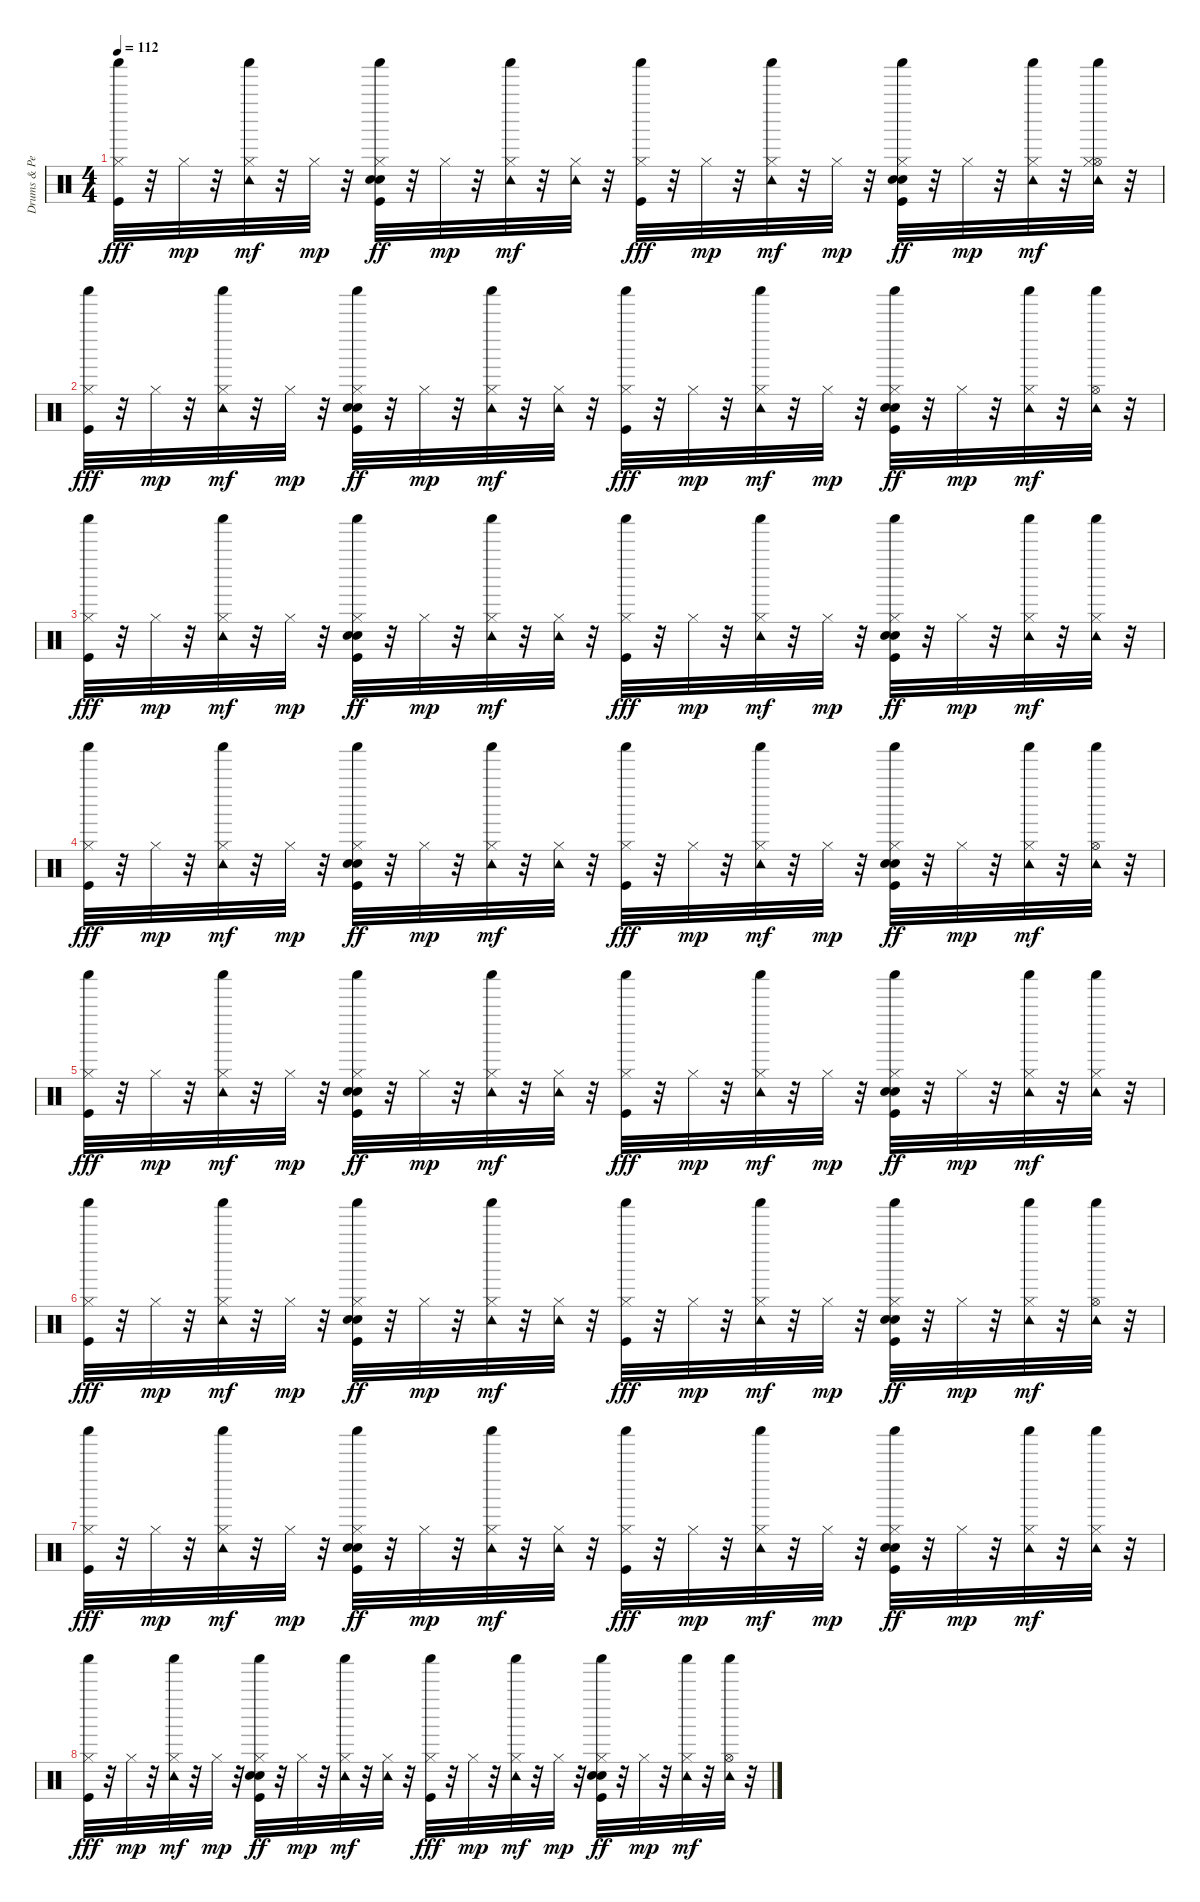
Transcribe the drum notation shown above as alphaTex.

\track ("Drums & Percussion" "Drums & Pe") {instrument percussion}
\staff {score}
\articulation defaults
\ts (4 4)
\tempo 112
\clef neutral
\ks c
("Shaker (hit)" "Hi-Hat (closed)" "Kick (hit)").32{dy fff} r.32 "Hi-Hat (closed)".32{dy mp} r.32 ("Shaker (hit)" "Hi-Hat (closed)" "Tambourine (hit)").32{dy mf} r.32 "Hi-Hat (closed)".32{dy mp} r.32 ("Shaker (hit)" "Snare (hit) 2" "Hi-Hat (closed)" "Hand Clap (hit)" "Kick (hit)").32{dy ff} r.32 "Hi-Hat (closed)".32{dy mp} r.32 ("Shaker (hit)" "Hi-Hat (closed)" "Tambourine (hit)").32{dy mf} r.32 ("Hi-Hat (closed)" "Tambourine (hit)").32 r.32 ("Shaker (hit)" "Hi-Hat (closed)" "Kick (hit)").32{dy fff} r.32 "Hi-Hat (closed)".32{dy mp} r.32 ("Shaker (hit)" "Hi-Hat (closed)" "Tambourine (hit)").32{dy mf} r.32 "Hi-Hat (closed)".32{dy mp} r.32 ("Shaker (hit)" "Snare (hit) 2" "Hi-Hat (closed)" "Hand Clap (hit)" "Kick (hit)").32{dy ff} r.32 "Hi-Hat (closed)".32{dy mp} r.32 ("Shaker (hit)" "Hi-Hat (closed)" "Tambourine (hit)").32{dy mf} r.32 ("Hi-Hat (open)" "Shaker (hit)" "Hi-Hat (closed)" "Tambourine (hit)").32 r.32 |
("Shaker (hit)" "Hi-Hat (closed)" "Kick (hit)").32{dy fff} r.32 "Hi-Hat (closed)".32{dy mp} r.32 ("Shaker (hit)" "Hi-Hat (closed)" "Tambourine (hit)").32{dy mf} r.32 "Hi-Hat (closed)".32{dy mp} r.32 ("Shaker (hit)" "Snare (hit) 2" "Hi-Hat (closed)" "Hand Clap (hit)" "Kick (hit)").32{dy ff} r.32 "Hi-Hat (closed)".32{dy mp} r.32 ("Shaker (hit)" "Hi-Hat (closed)" "Tambourine (hit)").32{dy mf} r.32 ("Hi-Hat (closed)" "Tambourine (hit)").32 r.32 ("Shaker (hit)" "Hi-Hat (closed)" "Kick (hit)").32{dy fff} r.32 "Hi-Hat (closed)".32{dy mp} r.32 ("Shaker (hit)" "Hi-Hat (closed)" "Tambourine (hit)").32{dy mf} r.32 "Hi-Hat (closed)".32{dy mp} r.32 ("Shaker (hit)" "Snare (hit) 2" "Hi-Hat (closed)" "Hand Clap (hit)" "Kick (hit)").32{dy ff} r.32 "Hi-Hat (closed)".32{dy mp} r.32 ("Shaker (hit)" "Hi-Hat (closed)" "Tambourine (hit)").32{dy mf} r.32 ("Hi-Hat (open)" "Shaker (hit)" "Tambourine (hit)").32 r.32 |
("Shaker (hit)" "Hi-Hat (closed)" "Kick (hit)").32{dy fff} r.32 "Hi-Hat (closed)".32{dy mp} r.32 ("Shaker (hit)" "Hi-Hat (closed)" "Tambourine (hit)").32{dy mf} r.32 "Hi-Hat (closed)".32{dy mp} r.32 ("Shaker (hit)" "Snare (hit) 2" "Hi-Hat (closed)" "Hand Clap (hit)" "Kick (hit)").32{dy ff} r.32 "Hi-Hat (closed)".32{dy mp} r.32 ("Shaker (hit)" "Hi-Hat (closed)" "Tambourine (hit)").32{dy mf} r.32 ("Hi-Hat (closed)" "Tambourine (hit)").32 r.32 ("Shaker (hit)" "Hi-Hat (closed)" "Kick (hit)").32{dy fff} r.32 "Hi-Hat (closed)".32{dy mp} r.32 ("Shaker (hit)" "Hi-Hat (closed)" "Tambourine (hit)").32{dy mf} r.32 "Hi-Hat (closed)".32{dy mp} r.32 ("Shaker (hit)" "Snare (hit) 2" "Hi-Hat (closed)" "Hand Clap (hit)" "Kick (hit)").32{dy ff} r.32 "Hi-Hat (closed)".32{dy mp} r.32 ("Shaker (hit)" "Hi-Hat (closed)" "Tambourine (hit)").32{dy mf} r.32 ("Shaker (hit)" "Hi-Hat (closed)" "Tambourine (hit)").32 r.32 |
("Shaker (hit)" "Hi-Hat (closed)" "Kick (hit)").32{dy fff} r.32 "Hi-Hat (closed)".32{dy mp} r.32 ("Shaker (hit)" "Hi-Hat (closed)" "Tambourine (hit)").32{dy mf} r.32 "Hi-Hat (closed)".32{dy mp} r.32 ("Shaker (hit)" "Snare (hit) 2" "Hi-Hat (closed)" "Hand Clap (hit)" "Kick (hit)").32{dy ff} r.32 "Hi-Hat (closed)".32{dy mp} r.32 ("Shaker (hit)" "Hi-Hat (closed)" "Tambourine (hit)").32{dy mf} r.32 ("Hi-Hat (closed)" "Tambourine (hit)").32 r.32 ("Shaker (hit)" "Hi-Hat (closed)" "Kick (hit)").32{dy fff} r.32 "Hi-Hat (closed)".32{dy mp} r.32 ("Shaker (hit)" "Hi-Hat (closed)" "Tambourine (hit)").32{dy mf} r.32 "Hi-Hat (closed)".32{dy mp} r.32 ("Shaker (hit)" "Snare (hit) 2" "Hi-Hat (closed)" "Hand Clap (hit)" "Kick (hit)").32{dy ff} r.32 "Hi-Hat (closed)".32{dy mp} r.32 ("Shaker (hit)" "Hi-Hat (closed)" "Tambourine (hit)").32{dy mf} r.32 ("Hi-Hat (open)" "Shaker (hit)" "Tambourine (hit)").32 r.32 |
("Shaker (hit)" "Hi-Hat (closed)" "Kick (hit)").32{dy fff} r.32 "Hi-Hat (closed)".32{dy mp} r.32 ("Shaker (hit)" "Hi-Hat (closed)" "Tambourine (hit)").32{dy mf} r.32 "Hi-Hat (closed)".32{dy mp} r.32 ("Shaker (hit)" "Snare (hit) 2" "Hi-Hat (closed)" "Hand Clap (hit)" "Kick (hit)").32{dy ff} r.32 "Hi-Hat (closed)".32{dy mp} r.32 ("Shaker (hit)" "Hi-Hat (closed)" "Tambourine (hit)").32{dy mf} r.32 ("Hi-Hat (closed)" "Tambourine (hit)").32 r.32 ("Shaker (hit)" "Hi-Hat (closed)" "Kick (hit)").32{dy fff} r.32 "Hi-Hat (closed)".32{dy mp} r.32 ("Shaker (hit)" "Hi-Hat (closed)" "Tambourine (hit)").32{dy mf} r.32 "Hi-Hat (closed)".32{dy mp} r.32 ("Shaker (hit)" "Snare (hit) 2" "Hi-Hat (closed)" "Hand Clap (hit)" "Kick (hit)").32{dy ff} r.32 "Hi-Hat (closed)".32{dy mp} r.32 ("Shaker (hit)" "Hi-Hat (closed)" "Tambourine (hit)").32{dy mf} r.32 ("Shaker (hit)" "Hi-Hat (closed)" "Tambourine (hit)").32 r.32 |
("Shaker (hit)" "Hi-Hat (closed)" "Kick (hit)").32{dy fff} r.32 "Hi-Hat (closed)".32{dy mp} r.32 ("Shaker (hit)" "Hi-Hat (closed)" "Tambourine (hit)").32{dy mf} r.32 "Hi-Hat (closed)".32{dy mp} r.32 ("Shaker (hit)" "Snare (hit) 2" "Hi-Hat (closed)" "Hand Clap (hit)" "Kick (hit)").32{dy ff} r.32 "Hi-Hat (closed)".32{dy mp} r.32 ("Shaker (hit)" "Hi-Hat (closed)" "Tambourine (hit)").32{dy mf} r.32 ("Hi-Hat (closed)" "Tambourine (hit)").32 r.32 ("Shaker (hit)" "Hi-Hat (closed)" "Kick (hit)").32{dy fff} r.32 "Hi-Hat (closed)".32{dy mp} r.32 ("Shaker (hit)" "Hi-Hat (closed)" "Tambourine (hit)").32{dy mf} r.32 "Hi-Hat (closed)".32{dy mp} r.32 ("Shaker (hit)" "Snare (hit) 2" "Hi-Hat (closed)" "Hand Clap (hit)" "Kick (hit)").32{dy ff} r.32 "Hi-Hat (closed)".32{dy mp} r.32 ("Shaker (hit)" "Hi-Hat (closed)" "Tambourine (hit)").32{dy mf} r.32 ("Hi-Hat (open)" "Shaker (hit)" "Tambourine (hit)").32 r.32 |
("Shaker (hit)" "Hi-Hat (closed)" "Kick (hit)").32{dy fff} r.32 "Hi-Hat (closed)".32{dy mp} r.32 ("Shaker (hit)" "Hi-Hat (closed)" "Tambourine (hit)").32{dy mf} r.32 "Hi-Hat (closed)".32{dy mp} r.32 ("Shaker (hit)" "Snare (hit) 2" "Hi-Hat (closed)" "Hand Clap (hit)" "Kick (hit)").32{dy ff} r.32 "Hi-Hat (closed)".32{dy mp} r.32 ("Shaker (hit)" "Hi-Hat (closed)" "Tambourine (hit)").32{dy mf} r.32 ("Hi-Hat (closed)" "Tambourine (hit)").32 r.32 ("Shaker (hit)" "Hi-Hat (closed)" "Kick (hit)").32{dy fff} r.32 "Hi-Hat (closed)".32{dy mp} r.32 ("Shaker (hit)" "Hi-Hat (closed)" "Tambourine (hit)").32{dy mf} r.32 "Hi-Hat (closed)".32{dy mp} r.32 ("Shaker (hit)" "Snare (hit) 2" "Hi-Hat (closed)" "Hand Clap (hit)" "Kick (hit)").32{dy ff} r.32 "Hi-Hat (closed)".32{dy mp} r.32 ("Shaker (hit)" "Hi-Hat (closed)" "Tambourine (hit)").32{dy mf} r.32 ("Shaker (hit)" "Hi-Hat (closed)" "Tambourine (hit)").32 r.32 |
("Shaker (hit)" "Hi-Hat (closed)" "Kick (hit)").32{dy fff} r.32 "Hi-Hat (closed)".32{dy mp} r.32 ("Shaker (hit)" "Hi-Hat (closed)" "Tambourine (hit)").32{dy mf} r.32 "Hi-Hat (closed)".32{dy mp} r.32 ("Shaker (hit)" "Snare (hit) 2" "Hi-Hat (closed)" "Hand Clap (hit)" "Kick (hit)").32{dy ff} r.32 "Hi-Hat (closed)".32{dy mp} r.32 ("Shaker (hit)" "Hi-Hat (closed)" "Tambourine (hit)").32{dy mf} r.32 ("Hi-Hat (closed)" "Tambourine (hit)").32 r.32 ("Shaker (hit)" "Hi-Hat (closed)" "Kick (hit)").32{dy fff} r.32 "Hi-Hat (closed)".32{dy mp} r.32 ("Shaker (hit)" "Hi-Hat (closed)" "Tambourine (hit)").32{dy mf} r.32 "Hi-Hat (closed)".32{dy mp} r.32 ("Shaker (hit)" "Snare (hit) 2" "Hi-Hat (closed)" "Hand Clap (hit)" "Kick (hit)").32{dy ff} r.32 "Hi-Hat (closed)".32{dy mp} r.32 ("Shaker (hit)" "Hi-Hat (closed)" "Tambourine (hit)").32{dy mf} r.32 ("Hi-Hat (open)" "Shaker (hit)" "Tambourine (hit)").32 r.32
